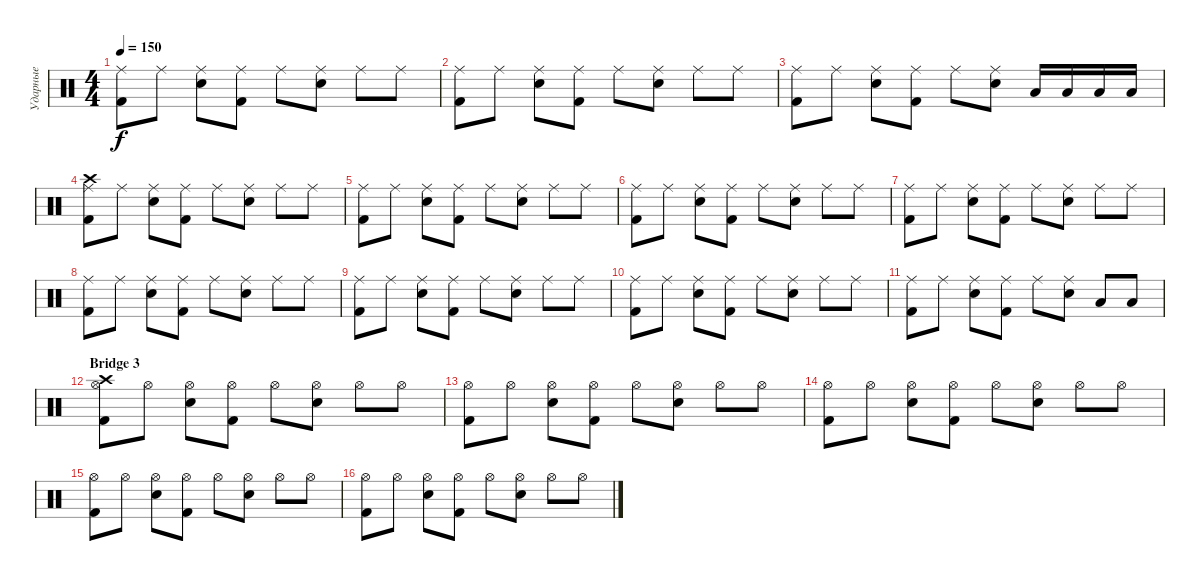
\track ("Ударные" "Ударные") {instrument percussion}
\staff {score}
\articulation defaults
\ts (4 4)
\tempo 150
\clef neutral
\ks c
("Ride (middle)" "Kick (hit) 2").8{dy f} "Ride (middle)".8 ("Ride (middle)" "Snare (hit) 2").8 ("Ride (middle)" "Kick (hit) 2").8 "Ride (middle)".8 ("Ride (middle)" "Snare (hit) 2").8 "Ride (middle)".8 "Ride (middle)".8 |
("Ride (middle)" "Kick (hit) 2").8 "Ride (middle)".8 ("Ride (middle)" "Snare (hit) 2").8 ("Ride (middle)" "Kick (hit) 2").8 "Ride (middle)".8 ("Ride (middle)" "Snare (hit) 2").8 "Ride (middle)".8 "Ride (middle)".8 |
("Ride (middle)" "Kick (hit) 2").8 "Ride (middle)".8 ("Ride (middle)" "Snare (hit) 2").8 ("Ride (middle)" "Kick (hit) 2").8 "Ride (middle)".8 ("Ride (middle)" "Snare (hit) 2").8 "Low Tom (hit)".16 "Low Tom (hit)".16 "Low Tom (hit)".16 "Low Tom (hit)".16 |
("Ride (middle)" "Crash high (hit)" "Kick (hit) 2").8 "Ride (middle)".8 ("Ride (middle)" "Snare (hit) 2").8 ("Ride (middle)" "Kick (hit) 2").8 "Ride (middle)".8 ("Ride (middle)" "Snare (hit) 2").8 "Ride (middle)".8 "Ride (middle)".8 |
("Ride (middle)" "Kick (hit) 2").8 "Ride (middle)".8 ("Ride (middle)" "Snare (hit) 2").8 ("Ride (middle)" "Kick (hit) 2").8 "Ride (middle)".8 ("Ride (middle)" "Snare (hit) 2").8 "Ride (middle)".8 "Ride (middle)".8 |
("Ride (middle)" "Kick (hit) 2").8 "Ride (middle)".8 ("Ride (middle)" "Snare (hit) 2").8 ("Ride (middle)" "Kick (hit) 2").8 "Ride (middle)".8 ("Ride (middle)" "Snare (hit) 2").8 "Ride (middle)".8 "Ride (middle)".8 |
("Ride (middle)" "Kick (hit) 2").8 "Ride (middle)".8 ("Ride (middle)" "Snare (hit) 2").8 ("Ride (middle)" "Kick (hit) 2").8 "Ride (middle)".8 ("Ride (middle)" "Snare (hit) 2").8 "Ride (middle)".8 "Ride (middle)".8 |
("Ride (middle)" "Kick (hit) 2").8 "Ride (middle)".8 ("Ride (middle)" "Snare (hit) 2").8 ("Ride (middle)" "Kick (hit) 2").8 "Ride (middle)".8 ("Ride (middle)" "Snare (hit) 2").8 "Ride (middle)".8 "Ride (middle)".8 |
("Ride (middle)" "Kick (hit) 2").8 "Ride (middle)".8 ("Ride (middle)" "Snare (hit) 2").8 ("Ride (middle)" "Kick (hit) 2").8 "Ride (middle)".8 ("Ride (middle)" "Snare (hit) 2").8 "Ride (middle)".8 "Ride (middle)".8 |
("Ride (middle)" "Kick (hit) 2").8 "Ride (middle)".8 ("Ride (middle)" "Snare (hit) 2").8 ("Ride (middle)" "Kick (hit) 2").8 "Ride (middle)".8 ("Ride (middle)" "Snare (hit) 2").8 "Ride (middle)".8 "Ride (middle)".8 |
("Ride (middle)" "Kick (hit) 2").8 "Ride (middle)".8 ("Ride (middle)" "Snare (hit) 2").8 ("Ride (middle)" "Kick (hit) 2").8 "Ride (middle)".8 ("Ride (middle)" "Snare (hit) 2").8 "Low Floor Tom (hit)".8 "Low Floor Tom (hit)".8 |
\section ("" "Bridge 3")
("Hi-Hat (open)" "Crash high (hit)" "Kick (hit) 2").8 "Hi-Hat (open)".8 ("Hi-Hat (open)" "Snare (hit) 2").8 ("Hi-Hat (open)" "Kick (hit) 2").8 "Hi-Hat (open)".8 ("Hi-Hat (open)" "Snare (hit) 2").8 "Hi-Hat (open)".8 "Hi-Hat (open)".8 |
("Hi-Hat (open)" "Kick (hit) 2").8 "Hi-Hat (open)".8 ("Hi-Hat (open)" "Snare (hit) 2").8 ("Hi-Hat (open)" "Kick (hit) 2").8 "Hi-Hat (open)".8 ("Hi-Hat (open)" "Snare (hit) 2").8 "Hi-Hat (open)".8 "Hi-Hat (open)".8 |
("Hi-Hat (open)" "Kick (hit) 2").8 "Hi-Hat (open)".8 ("Hi-Hat (open)" "Snare (hit) 2").8 ("Hi-Hat (open)" "Kick (hit) 2").8 "Hi-Hat (open)".8 ("Hi-Hat (open)" "Snare (hit) 2").8 "Hi-Hat (open)".8 "Hi-Hat (open)".8 |
("Hi-Hat (open)" "Kick (hit) 2").8 "Hi-Hat (open)".8 ("Hi-Hat (open)" "Snare (hit) 2").8 ("Hi-Hat (open)" "Kick (hit) 2").8 "Hi-Hat (open)".8 ("Hi-Hat (open)" "Snare (hit) 2").8 "Hi-Hat (open)".8 "Hi-Hat (open)".8 |
("Hi-Hat (open)" "Kick (hit) 2").8 "Hi-Hat (open)".8 ("Hi-Hat (open)" "Snare (hit) 2").8 ("Hi-Hat (open)" "Kick (hit) 2").8 "Hi-Hat (open)".8 ("Hi-Hat (open)" "Snare (hit) 2").8 "Hi-Hat (open)".8 "Hi-Hat (open)".8
